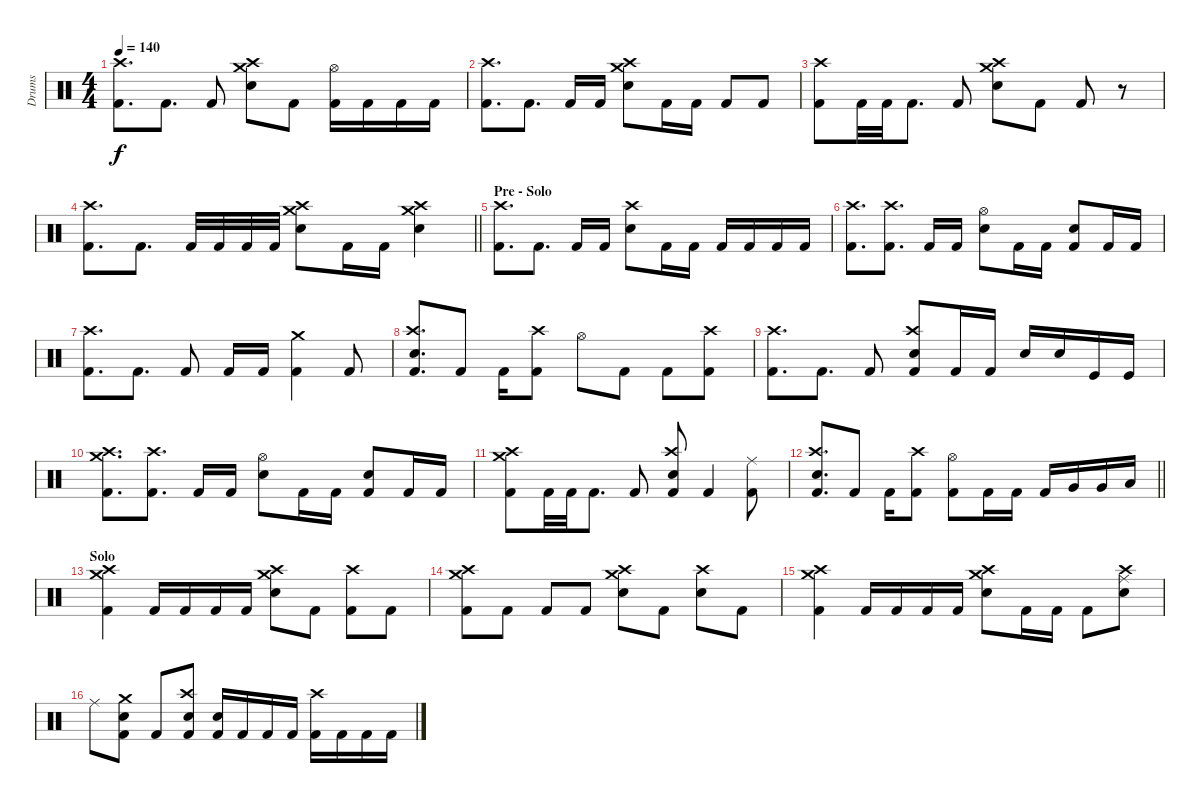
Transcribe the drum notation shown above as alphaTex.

\track ("Drums" "Drums") {instrument percussion}
\staff {score}
\articulation defaults
\ts (4 4)
\tempo 140
\clef neutral
\ks c
("Kick (hit) 2" "Crash high (hit)").8{d dy f} "Kick (hit) 2".8{d} "Kick (hit) 2".8 ("Electric Snare (hit)" "Crash medium (hit)" "Crash high (hit)").8 "Kick (hit) 2".8 ("Hi-Hat (open)" "Kick (hit) 2").16 "Kick (hit) 2".16 "Kick (hit) 2".16 "Kick (hit) 2".16 |
("Kick (hit) 2" "Crash high (hit)").8{d} "Kick (hit) 2".8{d} "Kick (hit) 2".16 "Kick (hit) 2".16 ("Electric Snare (hit)" "Crash high (hit)" "Crash medium (hit)").8 "Kick (hit) 2".16 "Kick (hit) 2".16 "Kick (hit) 2".8 "Kick (hit) 2".8 |
("Kick (hit) 2" "Crash high (hit)").8 "Kick (hit) 2".32 "Kick (hit) 2".32 "Kick (hit) 2".8{d} "Kick (hit) 2".8 ("Electric Snare (hit)" "Crash high (hit)" "Crash medium (hit)").8 "Kick (hit) 2".8 "Kick (hit) 2".8 r.8 |
\barLineRight lightlight
("Kick (hit) 2" "Crash high (hit)").8{d} "Kick (hit) 2".8{d} "Kick (hit) 2".32 "Kick (hit) 2".32 "Kick (hit) 2".32 "Kick (hit) 2".32 ("Electric Snare (hit)" "Crash high (hit)" "Crash medium (hit)").8 "Kick (hit) 2".16 "Kick (hit) 2".16 ("Electric Snare (hit)" "Crash high (hit)" "Crash medium (hit)").4 |
\section ("" "Pre - Solo")
("Kick (hit) 2" "Crash high (hit)").8{d} "Kick (hit) 2".8{d} "Kick (hit) 2".16 "Kick (hit) 2".16 ("Electric Snare (hit)" "Crash high (hit)").8 "Kick (hit) 2".16 "Kick (hit) 2".16 "Kick (hit) 2".16 "Kick (hit) 2".16 "Kick (hit) 2".16 "Kick (hit) 2".16 |
("Kick (hit) 2" "Crash high (hit)").8{d} ("Kick (hit) 2" "Crash high (hit)").8{d} "Kick (hit) 2".16 "Kick (hit) 2".16 ("Electric Snare (hit)" "Hi-Hat (open)").8 "Kick (hit) 2".16 "Kick (hit) 2".16 ("Electric Snare (hit)" "Kick (hit) 2").8 "Kick (hit) 2".16 "Kick (hit) 2".16 |
("Kick (hit) 2" "Crash high (hit)").8{d} "Kick (hit) 2".8{d} "Kick (hit) 2".8 "Kick (hit) 2".16 "Kick (hit) 2".16 ("Kick (hit) 2" "Crash medium (hit)").4 "Kick (hit) 2".8 |
("Kick (hit) 2" "Electric Snare (hit)" "Crash high (hit)").8{d} "Kick (hit) 2".8 "Kick (hit) 2".16 ("Crash high (hit)" "Kick (hit) 2").8 "Hi-Hat (open)".8 "Kick (hit) 2".8 "Kick (hit) 2".8 ("Crash high (hit)" "Kick (hit) 2").8 |
("Kick (hit) 2" "Crash high (hit)").8{d} "Kick (hit) 2".8{d} "Kick (hit) 2".8 ("Electric Snare (hit)" "Crash high (hit)" "Kick (hit) 2").8 "Kick (hit) 2".16 "Kick (hit) 2".16 "Electric Snare (hit)".16 "Electric Snare (hit)".16 "Kick (hit)".16 "Kick (hit)".16 |
("Kick (hit) 2" "Crash high (hit)" "Crash medium (hit)").8{d} ("Kick (hit) 2" "Crash high (hit)").8{d} "Kick (hit) 2".16 "Kick (hit) 2".16 ("Electric Snare (hit)" "Hi-Hat (open)").8 "Kick (hit) 2".16 "Kick (hit) 2".16 ("Electric Snare (hit)" "Kick (hit) 2").8 "Kick (hit) 2".16 "Kick (hit) 2".16 |
("Kick (hit) 2" "Crash high (hit)" "Crash medium (hit)").8 "Kick (hit) 2".32 "Kick (hit) 2".32 "Kick (hit) 2".8{d} "Kick (hit) 2".8 ("Crash high (hit)" "Kick (hit) 2" "Electric Snare (hit)").8 "Kick (hit) 2".4 ("Ride (middle)" "Kick (hit) 2").8 |
\barLineRight lightlight
("Kick (hit) 2" "Electric Snare (hit)" "Crash high (hit)").8{d} "Kick (hit) 2".8 "Kick (hit) 2".16 ("Crash high (hit)" "Kick (hit) 2").8 ("Hi-Hat (open)" "Kick (hit) 2").8 "Kick (hit) 2".16 "Kick (hit) 2".16 "Kick (hit) 2".16 "Very Low Tom (hit)".16 "Very Low Tom (hit)".16 "Low Floor Tom (hit)".16 |
\section ("" "Solo")
("Crash medium (hit)" "Kick (hit) 2" "Crash high (hit)").4 "Kick (hit) 2".16 "Kick (hit) 2".16 "Kick (hit) 2".16 "Kick (hit) 2".16 ("Crash medium (hit)" "Crash high (hit)" "Electric Snare (hit)").8 "Kick (hit) 2".8 ("Crash high (hit)" "Kick (hit) 2").8 "Kick (hit) 2".8 |
("Crash medium (hit)" "Kick (hit) 2" "Crash high (hit)").8 "Kick (hit) 2".8 "Kick (hit) 2".8 "Kick (hit) 2".8 ("Crash medium (hit)" "Crash high (hit)" "Electric Snare (hit)").8 "Kick (hit) 2".8 ("Crash high (hit)" "Electric Snare (hit)").8 "Kick (hit) 2".8 |
("Crash medium (hit)" "Kick (hit) 2" "Crash high (hit)").4 "Kick (hit) 2".16 "Kick (hit) 2".16 "Kick (hit) 2".16 "Kick (hit) 2".16 ("Crash medium (hit)" "Crash high (hit)" "Electric Snare (hit)").8 "Kick (hit) 2".16 "Kick (hit) 2".16 "Kick (hit) 2".8 ("Ride (middle)" "Crash high (hit)" "Electric Snare (hit)").8 |
"Ride (middle)".8 ("Crash medium (hit)" "Electric Snare (hit)" "Kick (hit) 2").8 "Kick (hit) 2".8 ("Crash high (hit)" "Electric Snare (hit)" "Kick (hit) 2").8 ("Electric Snare (hit)" "Kick (hit) 2").16 "Kick (hit) 2".16 "Kick (hit) 2".16 "Kick (hit) 2".16 ("Crash high (hit)" "Kick (hit) 2").16 "Kick (hit) 2".16 "Kick (hit) 2".16 "Kick (hit) 2".16
